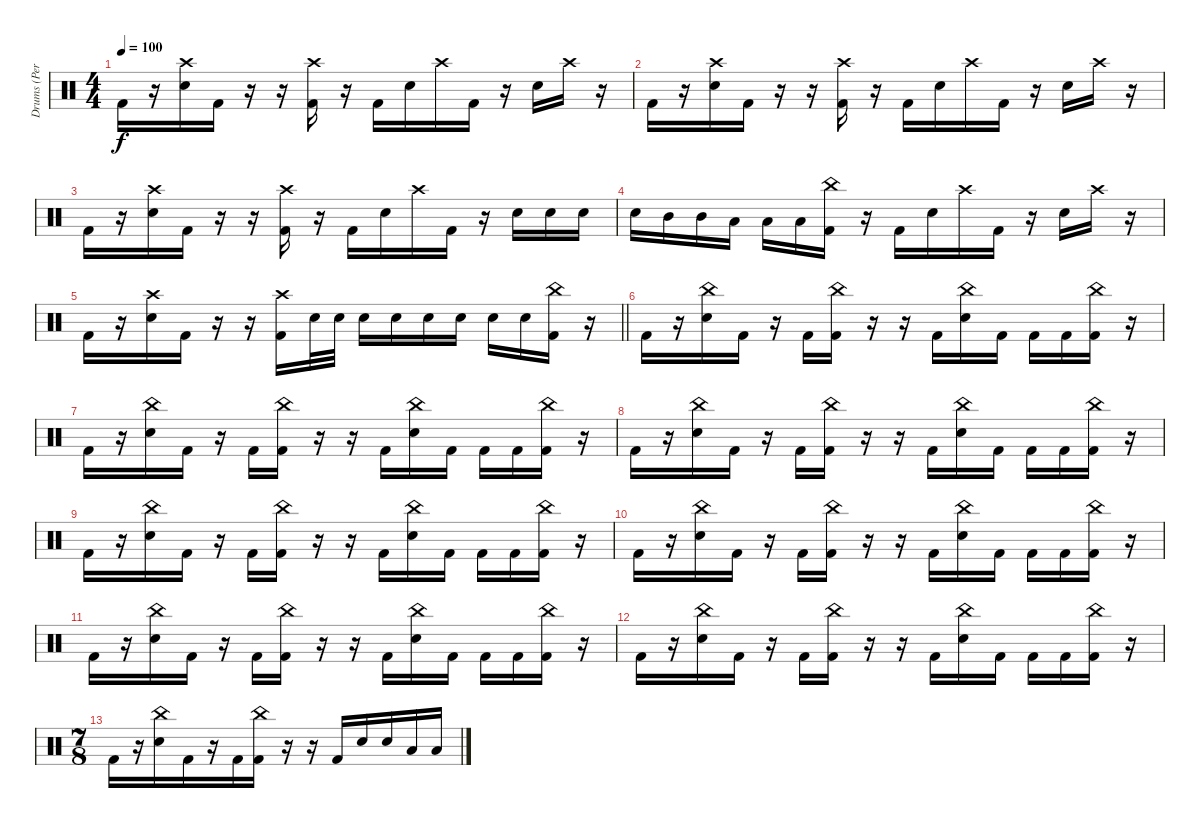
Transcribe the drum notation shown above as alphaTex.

\track ("Drums (Perttu Kurttila)" "Drums (Per") {instrument percussion}
\staff {score}
\articulation defaults
\ts (4 4)
\tempo 100
\clef neutral
\ks c "Kick (hit) 2".16{dy f}
r.16 ("Crash high (hit)" "Electric Snare (hit)").16 "Kick (hit) 2".16 r.16 r.16 ("Crash high (hit)" "Kick (hit) 2").16 r.16 "Kick (hit) 2".16 "Electric Snare (hit)".16 "Crash high (hit)".16 "Kick (hit) 2".16 r.16 "Electric Snare (hit)".16 "Crash high (hit)".16 r.16 |
"Kick (hit) 2".16 r.16 ("Crash high (hit)" "Electric Snare (hit)").16 "Kick (hit) 2".16 r.16 r.16 ("Crash high (hit)" "Kick (hit) 2").16 r.16 "Kick (hit) 2".16 "Electric Snare (hit)".16 "Crash high (hit)".16 "Kick (hit) 2".16 r.16 "Electric Snare (hit)".16 "Crash high (hit)".16 r.16 |
"Kick (hit) 2".16 r.16 ("Crash high (hit)" "Electric Snare (hit)").16 "Kick (hit) 2".16 r.16 r.16 ("Crash high (hit)" "Kick (hit) 2").16 r.16 "Kick (hit) 2".16 "Electric Snare (hit)".16 "Crash high (hit)".16 "Kick (hit) 2".16 r.16 "Electric Snare (hit)".16 "Electric Snare (hit)".16 "Electric Snare (hit)".16 |
"Electric Snare (hit)".16 "Mid Tom (hit)".16 "Mid Tom (hit)".16 "Low Tom (hit)".16 "Low Tom (hit)".16 "Low Tom (hit)".16 ("China (hit)" "Kick (hit) 2").16 r.16 "Kick (hit) 2".16 "Electric Snare (hit)".16 "Crash high (hit)".16 "Kick (hit) 2".16 r.16 "Electric Snare (hit)".16 "Crash high (hit)".16 r.16 |
\barLineRight lightlight "Kick (hit) 2".16
r.16 ("Crash high (hit)" "Electric Snare (hit)").16 "Kick (hit) 2".16 r.16 r.16 ("Crash high (hit)" "Kick (hit) 2").16 "Electric Snare (hit)".32 "Electric Snare (hit)".32 "Electric Snare (hit)".16 "Electric Snare (hit)".16 "Electric Snare (hit)".16 "Electric Snare (hit)".16 "Electric Snare (hit)".16 "Electric Snare (hit)".16 ("China (hit)" "Kick (hit) 2").16 r.16 |
\section ("" "")
"Kick (hit) 2".16 r.16 ("China (hit)" "Electric Snare (hit)").16 "Kick (hit) 2".16 r.16 "Kick (hit) 2".16 ("China (hit)" "Kick (hit) 2").16 r.16 r.16 "Kick (hit) 2".16 ("China (hit)" "Electric Snare (hit)").16 "Kick (hit) 2".16 "Kick (hit) 2".16 "Kick (hit) 2".16 ("China (hit)" "Kick (hit) 2").16 r.16 |
"Kick (hit) 2".16 r.16 ("China (hit)" "Electric Snare (hit)").16 "Kick (hit) 2".16 r.16 "Kick (hit) 2".16 ("China (hit)" "Kick (hit) 2").16 r.16 r.16 "Kick (hit) 2".16 ("China (hit)" "Electric Snare (hit)").16 "Kick (hit) 2".16 "Kick (hit) 2".16 "Kick (hit) 2".16 ("China (hit)" "Kick (hit) 2").16 r.16 |
"Kick (hit) 2".16 r.16 ("China (hit)" "Electric Snare (hit)").16 "Kick (hit) 2".16 r.16 "Kick (hit) 2".16 ("China (hit)" "Kick (hit) 2").16 r.16 r.16 "Kick (hit) 2".16 ("China (hit)" "Electric Snare (hit)").16 "Kick (hit) 2".16 "Kick (hit) 2".16 "Kick (hit) 2".16 ("China (hit)" "Kick (hit) 2").16 r.16 |
"Kick (hit) 2".16 r.16 ("China (hit)" "Electric Snare (hit)").16 "Kick (hit) 2".16 r.16 "Kick (hit) 2".16 ("China (hit)" "Kick (hit) 2").16 r.16 r.16 "Kick (hit) 2".16 ("China (hit)" "Electric Snare (hit)").16 "Kick (hit) 2".16 "Kick (hit) 2".16 "Kick (hit) 2".16 ("China (hit)" "Kick (hit) 2").16 r.16 |
"Kick (hit) 2".16 r.16 ("China (hit)" "Electric Snare (hit)").16 "Kick (hit) 2".16 r.16 "Kick (hit) 2".16 ("China (hit)" "Kick (hit) 2").16 r.16 r.16 "Kick (hit) 2".16 ("China (hit)" "Electric Snare (hit)").16 "Kick (hit) 2".16 "Kick (hit) 2".16 "Kick (hit) 2".16 ("China (hit)" "Kick (hit) 2").16 r.16 |
"Kick (hit) 2".16 r.16 ("China (hit)" "Electric Snare (hit)").16 "Kick (hit) 2".16 r.16 "Kick (hit) 2".16 ("China (hit)" "Kick (hit) 2").16 r.16 r.16 "Kick (hit) 2".16 ("China (hit)" "Electric Snare (hit)").16 "Kick (hit) 2".16 "Kick (hit) 2".16 "Kick (hit) 2".16 ("China (hit)" "Kick (hit) 2").16 r.16 |
"Kick (hit) 2".16 r.16 ("China (hit)" "Electric Snare (hit)").16 "Kick (hit) 2".16 r.16 "Kick (hit) 2".16 ("China (hit)" "Kick (hit) 2").16 r.16 r.16 "Kick (hit) 2".16 ("China (hit)" "Electric Snare (hit)").16 "Kick (hit) 2".16 "Kick (hit) 2".16 "Kick (hit) 2".16 ("China (hit)" "Kick (hit) 2").16 r.16 |
\ts (7 8)
"Kick (hit) 2".16 r.16 ("China (hit)" "Electric Snare (hit)").16 "Kick (hit) 2".16 r.16 "Kick (hit) 2".16 ("China (hit)" "Kick (hit) 2").16 r.16 r.16 "Kick (hit) 2".16 "Electric Snare (hit)".16 "Electric Snare (hit)".16 "Low Tom (hit)".16 "Low Tom (hit)".16
